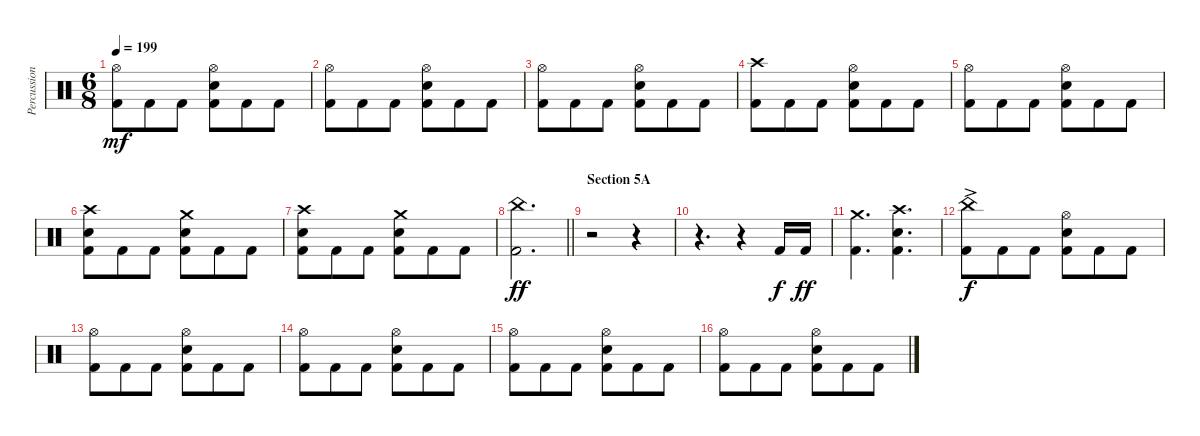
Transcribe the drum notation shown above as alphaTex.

\track ("Percussion" "Percussion") {instrument percussion}
\staff {score}
\articulation defaults
\ts (6 8)
\tempo 199
\clef neutral
\ks c
("Hi-Hat (open)" "Kick (hit) 2").8{dy mf} "Kick (hit) 2".8 "Kick (hit) 2".8 ("Electric Snare (hit)" "Hi-Hat (open)" "Kick (hit) 2").8 "Kick (hit) 2".8 "Kick (hit) 2".8 |
("Hi-Hat (open)" "Kick (hit) 2").8 "Kick (hit) 2".8 "Kick (hit) 2".8 ("Electric Snare (hit)" "Hi-Hat (open)" "Kick (hit) 2").8 "Kick (hit) 2".8 "Kick (hit) 2".8 |
("Hi-Hat (open)" "Kick (hit) 2").8 "Kick (hit) 2".8 "Kick (hit) 2".8 ("Electric Snare (hit)" "Hi-Hat (open)" "Kick (hit) 2").8 "Kick (hit) 2".8 "Kick (hit) 2".8 |
("Crash high (hit)" "Kick (hit) 2").8 "Kick (hit) 2".8 "Kick (hit) 2".8 ("Electric Snare (hit)" "Hi-Hat (open)" "Kick (hit) 2").8 "Kick (hit) 2".8 "Kick (hit) 2".8 |
("Hi-Hat (open)" "Kick (hit) 2").8 "Kick (hit) 2".8 "Kick (hit) 2".8 ("Electric Snare (hit)" "Hi-Hat (open)" "Kick (hit) 2").8 "Kick (hit) 2".8 "Kick (hit) 2".8 |
("Crash high (hit)" "Electric Snare (hit)" "Kick (hit) 2").8 "Kick (hit) 2".8 "Kick (hit) 2".8 ("Crash medium (hit)" "Electric Snare (hit)" "Kick (hit) 2").8 "Kick (hit) 2".8 "Kick (hit) 2".8 |
("Crash high (hit)" "Electric Snare (hit)" "Kick (hit) 2").8 "Kick (hit) 2".8 "Kick (hit) 2".8 ("Crash medium (hit)" "Electric Snare (hit)" "Kick (hit) 2").8 "Kick (hit) 2".8 "Kick (hit) 2".8 |
\barLineRight lightlight
("China (hit)" "Kick (hit) 2").2{d dy ff} |
\section ("" "Section 5A")
r.2 r.4 |
r.4{d} r.4 "Kick (hit) 2".16{dy f} "Kick (hit) 2".16{dy ff} |
("Crash medium (hit)" "Kick (hit) 2").4{d} ("Crash high (hit)" "Electric Snare (hit)" "Kick (hit) 2").4{d} |
("China (hit)"{ac} "Kick (hit) 2").8{dy f} "Kick (hit) 2".8 "Kick (hit) 2".8 ("Hi-Hat (open)" "Electric Snare (hit)" "Kick (hit) 2").8 "Kick (hit) 2".8 "Kick (hit) 2".8 |
("Hi-Hat (open)" "Kick (hit) 2").8 "Kick (hit) 2".8 "Kick (hit) 2".8 ("Hi-Hat (open)" "Electric Snare (hit)" "Kick (hit) 2").8 "Kick (hit) 2".8 "Kick (hit) 2".8 |
("Hi-Hat (open)" "Kick (hit) 2").8 "Kick (hit) 2".8 "Kick (hit) 2".8 ("Hi-Hat (open)" "Electric Snare (hit)" "Kick (hit) 2").8 "Kick (hit) 2".8 "Kick (hit) 2".8 |
("Hi-Hat (open)" "Kick (hit) 2").8 "Kick (hit) 2".8 "Kick (hit) 2".8 ("Hi-Hat (open)" "Electric Snare (hit)" "Kick (hit) 2").8 "Kick (hit) 2".8 "Kick (hit) 2".8 |
("Hi-Hat (open)" "Kick (hit) 2").8 "Kick (hit) 2".8 "Kick (hit) 2".8 ("Hi-Hat (open)" "Electric Snare (hit)" "Kick (hit) 2").8 "Kick (hit) 2".8 "Kick (hit) 2".8
